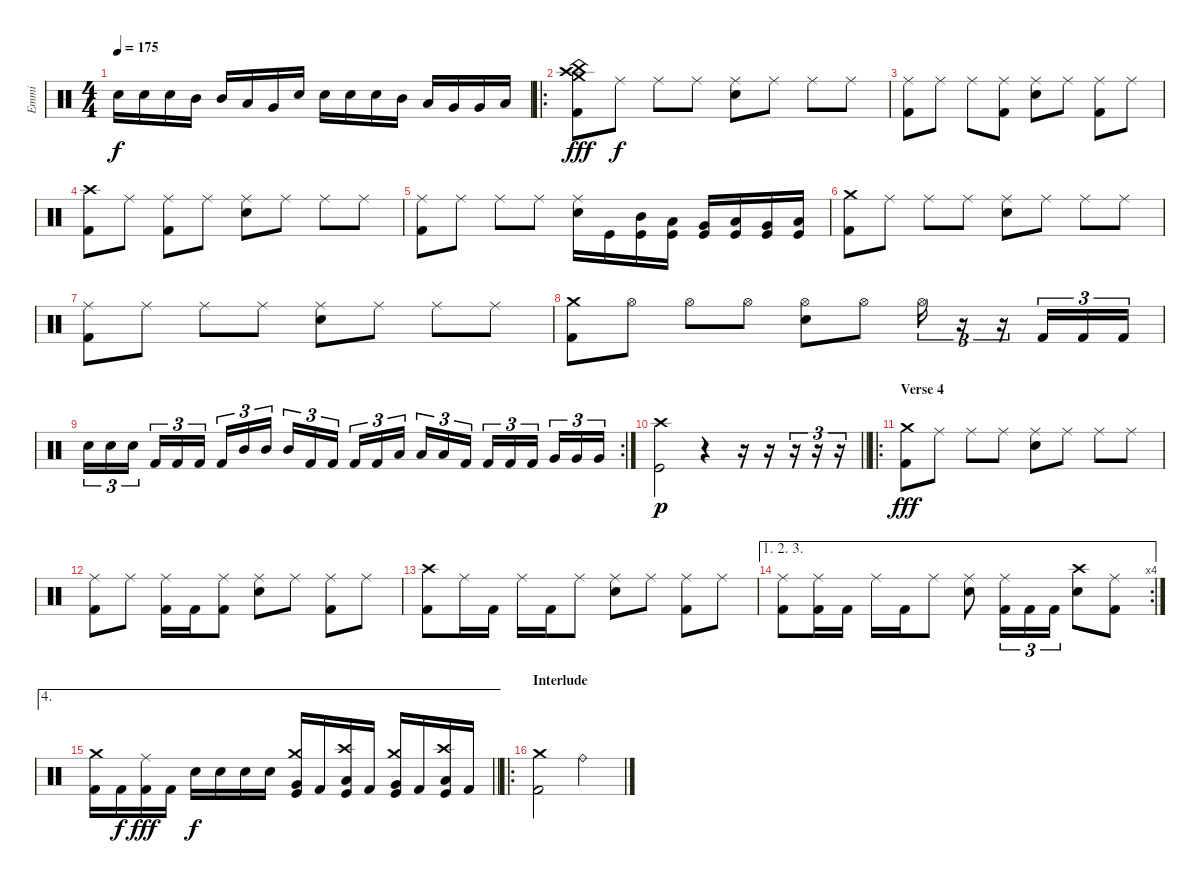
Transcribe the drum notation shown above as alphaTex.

\track ("Emmi" "Emmi") {instrument percussion}
\staff {score}
\articulation defaults
\ts (4 4)
\tempo 175
\clef neutral
\ks c "Electric Snare (hit)".16{dy f} "Electric Snare (hit)".16 "Electric Snare (hit)".16 "Mid Tom (hit)".16 "Mid Tom (hit)".16 "Low Tom (hit)".16 "Very Low Tom (hit)".16 "Electric Snare (hit)".16 "Electric Snare (hit)".16 "Electric Snare (hit)".16 "Electric Snare (hit)".16 "Mid Tom (hit)".16 "Low Tom (hit)".16 "Very Low Tom (hit)".16 "Very Low Tom (hit)".16 "Low Floor Tom (hit)".16
|
\ro
("Crash medium (hit)" "Crash high (hit)" "China (hit)" "Kick (hit) 2").8{dy fff} "Ride (middle)".8{dy f} "Ride (middle)".8 "Ride (middle)".8 ("Ride (middle)" "Electric Snare (hit)").8 "Ride (middle)".8 "Ride (middle)".8 "Ride (middle)".8 |
("Ride (middle)" "Kick (hit) 2").8 "Ride (middle)".8 "Ride (middle)".8 ("Ride (middle)" "Kick (hit) 2").8 ("Ride (middle)" "Electric Snare (hit)").8 "Ride (middle)".8 ("Ride (middle)" "Kick (hit) 2").8 "Ride (middle)".8 |
("Crash high (hit)" "Kick (hit) 2").8 "Ride (middle)".8 ("Ride (middle)" "Kick (hit) 2").8 "Ride (middle)".8 ("Ride (middle)" "Electric Snare (hit)").8 "Ride (middle)".8 "Ride (middle)".8 "Ride (middle)".8 |
("Ride (middle)" "Kick (hit) 2").8 "Ride (middle)".8 "Ride (middle)".8 "Ride (middle)".8 ("Ride (middle)" "Electric Snare (hit)").16 "Kick (hit)".16 ("Mid Tom (hit)" "Kick (hit)").16 ("Low Tom (hit)" "Kick (hit)").16 ("Very Low Tom (hit)" "Kick (hit)").16 ("Low Tom (hit)" "Kick (hit)").16 ("Very Low Tom (hit)" "Kick (hit)").16 ("Low Floor Tom (hit)" "Kick (hit)").16 |
("Crash medium (hit)" "Kick (hit) 2").8 "Ride (middle)".8 "Ride (middle)".8 "Ride (middle)".8 ("Ride (middle)" "Electric Snare (hit)").8 "Ride (middle)".8 "Ride (middle)".8 "Ride (middle)".8 |
("Ride (middle)" "Kick (hit) 2").8 "Ride (middle)".8 "Ride (middle)".8 "Ride (middle)".8 ("Ride (middle)" "Electric Snare (hit)").8 "Ride (middle)".8 "Ride (middle)".8 "Ride (middle)".8 |
("Crash medium (hit)" "Kick (hit) 2").8 "Hi-Hat (open)".8 "Hi-Hat (open)".8 "Hi-Hat (open)".8 ("Hi-Hat (open)" "Electric Snare (hit)").8 "Hi-Hat (open)".8 "Hi-Hat (open)".16{tu (3 2)} r.16{tu (3 2)} r.16{tu (3 2)} "Kick (hit) 2".16{tu (3 2)} "Kick (hit) 2".16{tu (3 2)} "Kick (hit) 2".16{tu (3 2)} |
\rc 2 "Electric Snare (hit)".16{tu (3 2)} "Electric Snare (hit)".16{tu (3 2)} "Electric Snare (hit)".16{tu (3 2) beam splitsecondary} "Kick (hit) 2".16{tu (3 2)} "Kick (hit) 2".16{tu (3 2)} "Kick (hit) 2".16{tu (3 2)} "Kick (hit) 2".16{tu (3 2)} "Mid Tom (hit)".16{tu (3 2)} "Mid Tom (hit)".16{tu (3 2) beam splitsecondary} "Mid Tom (hit)".16{tu (3 2)} "Kick (hit) 2".16{tu (3 2)} "Kick (hit) 2".16{tu (3 2)} "Kick (hit) 2".16{tu (3 2)} "Kick (hit) 2".16{tu (3 2)} "Low Tom (hit)".16{tu (3 2) beam splitsecondary} "Low Tom (hit)".16{tu (3 2)} "Low Tom (hit)".16{tu (3 2)} "Kick (hit) 2".16{tu (3 2)} "Kick (hit) 2".16{tu (3 2)} "Kick (hit) 2".16{tu (3 2)} "Kick (hit) 2".16{tu (3 2) beam splitsecondary} "Very Low Tom (hit)".16{tu (3 2)} "Very Low Tom (hit)".16{tu (3 2)} "Very Low Tom (hit)".16{tu (3 2)}
|
\barLineRight lightlight
("Crash high (hit)" "Kick (hit)").2{dy p} r.4 r.16 r.16 r.16{tu (3 2)} r.16{tu (3 2)} r.16{tu (3 2)} |
\ro
\section ("" "Verse 4")
("Crash medium (hit)" "Kick (hit) 2").8{dy fff} "Ride (middle)".8 "Ride (middle)".8 "Ride (middle)".8 ("Ride (middle)" "Electric Snare (hit)").8 "Ride (middle)".8 "Ride (middle)".8 "Ride (middle)".8 |
("Ride (middle)" "Kick (hit) 2").8 "Ride (middle)".8 ("Ride (middle)" "Kick (hit) 2").16 "Kick (hit) 2".16 ("Ride (middle)" "Kick (hit) 2").8 ("Ride (middle)" "Electric Snare (hit)").8 "Ride (middle)".8 ("Ride (middle)" "Kick (hit) 2").8 "Ride (middle)".8 |
("Crash high (hit)" "Kick (hit) 2").8 "Ride (middle)".16 "Kick (hit) 2".16 "Ride (middle)".16 "Kick (hit) 2".16 "Ride (middle)".8 ("Ride (middle)" "Electric Snare (hit)").8 "Ride (middle)".8 ("Ride (middle)" "Kick (hit) 2").8 "Ride (middle)".8 |
\ae (1 2 3)
\rc 4
("Ride (middle)" "Kick (hit) 2").8 ("Ride (middle)" "Kick (hit) 2").16 "Kick (hit) 2".16 "Ride (middle)".16 "Kick (hit) 2".16 "Ride (middle)".8 ("Ride (middle)" "Electric Snare (hit)").8 ("Ride (middle)" "Kick (hit) 2").16{tu (3 2)} "Kick (hit) 2".16{tu (3 2)} "Kick (hit) 2".16{tu (3 2)} ("Crash high (hit)" "Electric Snare (hit)").8 ("Ride (middle)" "Kick (hit) 2").8 |
\ae 4
\barLineRight lightlight
("Crash medium (hit)" "Kick (hit) 2").16 "Kick (hit) 2".16{dy f} ("Ride (middle)" "Kick (hit) 2").16{dy fff} "Kick (hit) 2".16 "Electric Snare (hit)".16{dy f} "Electric Snare (hit)".16 "Electric Snare (hit)".16 "Electric Snare (hit)".16 ("Kick (hit)" "Very Low Tom (hit)" "Crash medium (hit)").16 "Kick (hit) 2".16 ("Kick (hit)" "Low Floor Tom (hit)" "Crash high (hit)").16 "Kick (hit) 2".16 ("Kick (hit)" "Very Low Tom (hit)" "Crash medium (hit)").16 "Kick (hit) 2".16 ("Kick (hit)" "Low Floor Tom (hit)" "Crash high (hit)").16 "Kick (hit) 2".16 |
\ro
\section ("" "Interlude")
("Crash medium (hit)" "Kick (hit) 2").2 "Ride (bell)".2
